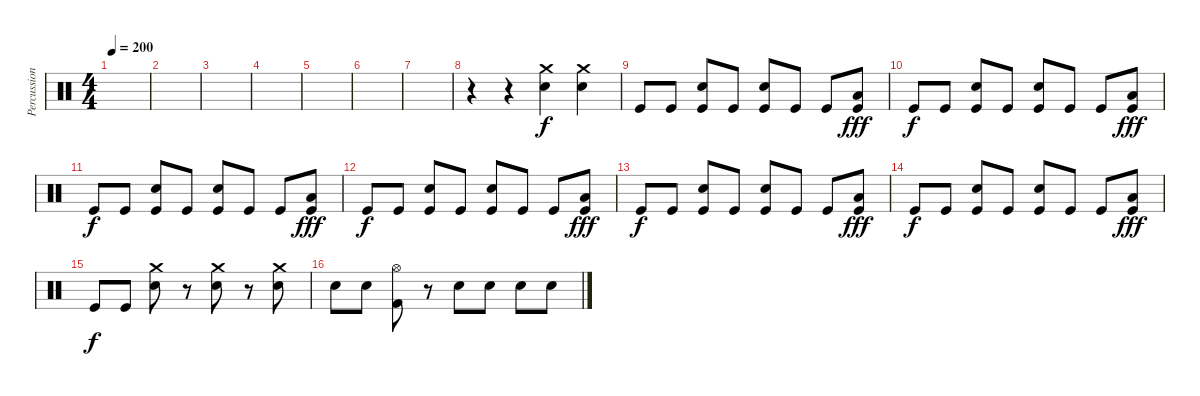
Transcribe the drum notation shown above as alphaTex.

\track ("Percussion" "Percussion") {instrument percussion}
\staff {score}
\articulation defaults
\ts (4 4)
\tempo 200
\clef neutral
\ks c
|
|
|
|
|
|
|
r.4 r.4 ("Crash medium (hit)" "Electric Snare (hit)").4 ("Crash medium (hit)" "Electric Snare (hit)").4 |
"Kick (hit)".8 "Kick (hit)".8 ("Electric Snare (hit)" "Kick (hit)").8 "Kick (hit)".8 ("Electric Snare (hit)" "Kick (hit)").8 "Kick (hit)".8 "Kick (hit)".8 ("Low Tom (hit)" "Kick (hit)").8{dy fff} |
"Kick (hit)".8{dy f} "Kick (hit)".8 ("Electric Snare (hit)" "Kick (hit)").8 "Kick (hit)".8 ("Electric Snare (hit)" "Kick (hit)").8 "Kick (hit)".8 "Kick (hit)".8 ("Low Tom (hit)" "Kick (hit)").8{dy fff} |
"Kick (hit)".8{dy f} "Kick (hit)".8 ("Electric Snare (hit)" "Kick (hit)").8 "Kick (hit)".8 ("Electric Snare (hit)" "Kick (hit)").8 "Kick (hit)".8 "Kick (hit)".8 ("Low Tom (hit)" "Kick (hit)").8{dy fff} |
"Kick (hit)".8{dy f} "Kick (hit)".8 ("Electric Snare (hit)" "Kick (hit)").8 "Kick (hit)".8 ("Electric Snare (hit)" "Kick (hit)").8 "Kick (hit)".8 "Kick (hit)".8 ("Low Tom (hit)" "Kick (hit)").8{dy fff} |
"Kick (hit)".8{dy f} "Kick (hit)".8 ("Electric Snare (hit)" "Kick (hit)").8 "Kick (hit)".8 ("Electric Snare (hit)" "Kick (hit)").8 "Kick (hit)".8 "Kick (hit)".8 ("Low Tom (hit)" "Kick (hit)").8{dy fff} |
"Kick (hit)".8{dy f} "Kick (hit)".8 ("Electric Snare (hit)" "Kick (hit)").8 "Kick (hit)".8 ("Electric Snare (hit)" "Kick (hit)").8 "Kick (hit)".8 "Kick (hit)".8 ("Low Tom (hit)" "Kick (hit)").8{dy fff} |
"Kick (hit)".8{dy f} "Kick (hit)".8 ("Electric Snare (hit)" "Crash medium (hit)").8 r.8 ("Electric Snare (hit)" "Crash medium (hit)").8 r.8 ("Electric Snare (hit)" "Crash medium (hit)").8 |
"Electric Snare (hit)".8 "Electric Snare (hit)".8 ("Hi-Hat (open)" "Kick (hit) 2").8 r.8 "Electric Snare (hit)".8 "Electric Snare (hit)".8 "Electric Snare (hit)".8 "Electric Snare (hit)".8
